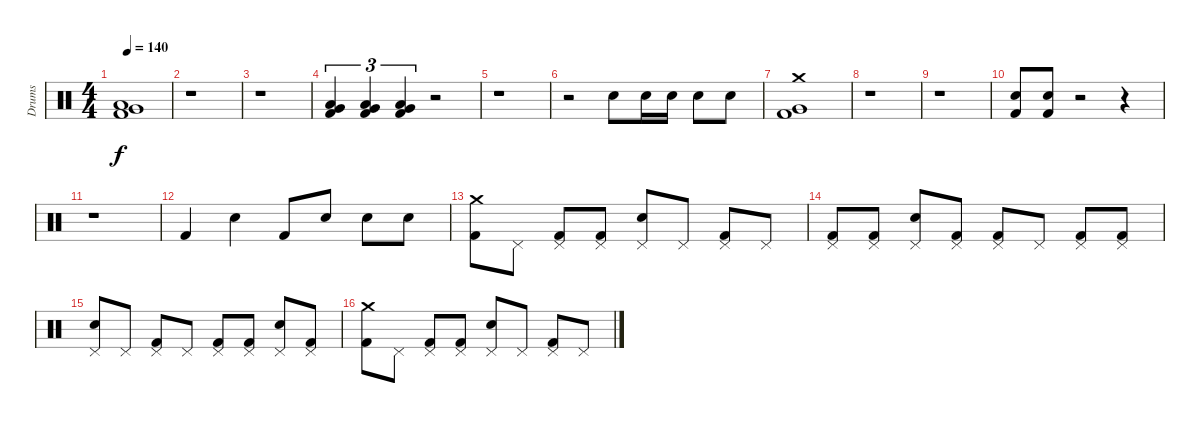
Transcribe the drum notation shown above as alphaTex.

\track ("Drums" "Drums") {instrument percussion}
\staff {score}
\articulation defaults
\ts (4 4)
\tempo 140
\clef neutral
\ks c
("Low Tom (hit)" "Very Low Tom (hit)" "Kick (hit) 2").1{dy f} |
r.1 |
r.1 |
("Very Low Tom (hit)" "Low Floor Tom (hit)" "Kick (hit) 2").4{tu (3 2)} ("Very Low Tom (hit)" "Low Floor Tom (hit)" "Kick (hit) 2").4{tu (3 2)} ("Very Low Tom (hit)" "Low Floor Tom (hit)" "Kick (hit) 2").4{tu (3 2)} r.2 |
r.1 |
r.2 "Electric Snare (hit)".8 "Electric Snare (hit)".16 "Electric Snare (hit)".16 "Electric Snare (hit)".8 "Electric Snare (hit)".8 |
("Kick (hit) 2" "Very Low Tom (hit)" "Crash medium (hit)").1 |
r.1 |
r.1 |
("Electric Snare (hit)" "Kick (hit) 2").8 ("Electric Snare (hit)" "Kick (hit) 2").8 r.2 r.4 |
r.1 |
"Kick (hit) 2".4 "Electric Snare (hit)".4 "Kick (hit) 2".8 "Electric Snare (hit)".8 "Electric Snare (hit)".8 "Electric Snare (hit)".8 |
("Crash medium (hit)" "Kick (hit) 2").8 "Pedal Hi-Hat (hit)".8 ("Pedal Hi-Hat (hit)" "Kick (hit) 2").8 ("Pedal Hi-Hat (hit)" "Kick (hit) 2").8 ("Pedal Hi-Hat (hit)" "Electric Snare (hit)").8 "Pedal Hi-Hat (hit)".8 ("Pedal Hi-Hat (hit)" "Kick (hit) 2").8 "Pedal Hi-Hat (hit)".8 |
("Pedal Hi-Hat (hit)" "Kick (hit) 2").8 ("Pedal Hi-Hat (hit)" "Kick (hit) 2").8 ("Pedal Hi-Hat (hit)" "Electric Snare (hit)").8 ("Pedal Hi-Hat (hit)" "Kick (hit) 2").8 ("Pedal Hi-Hat (hit)" "Kick (hit) 2").8 "Pedal Hi-Hat (hit)".8 ("Pedal Hi-Hat (hit)" "Kick (hit) 2").8 ("Pedal Hi-Hat (hit)" "Kick (hit) 2").8 |
("Pedal Hi-Hat (hit)" "Electric Snare (hit)").8 "Pedal Hi-Hat (hit)".8 ("Pedal Hi-Hat (hit)" "Kick (hit) 2").8 "Pedal Hi-Hat (hit)".8 ("Pedal Hi-Hat (hit)" "Kick (hit) 2").8 ("Pedal Hi-Hat (hit)" "Kick (hit) 2").8 ("Pedal Hi-Hat (hit)" "Electric Snare (hit)").8 ("Pedal Hi-Hat (hit)" "Kick (hit) 2").8 |
("Crash medium (hit)" "Kick (hit) 2").8 "Pedal Hi-Hat (hit)".8 ("Pedal Hi-Hat (hit)" "Kick (hit) 2").8 ("Pedal Hi-Hat (hit)" "Kick (hit) 2").8 ("Pedal Hi-Hat (hit)" "Electric Snare (hit)").8 "Pedal Hi-Hat (hit)".8 ("Pedal Hi-Hat (hit)" "Kick (hit) 2").8 "Pedal Hi-Hat (hit)".8
